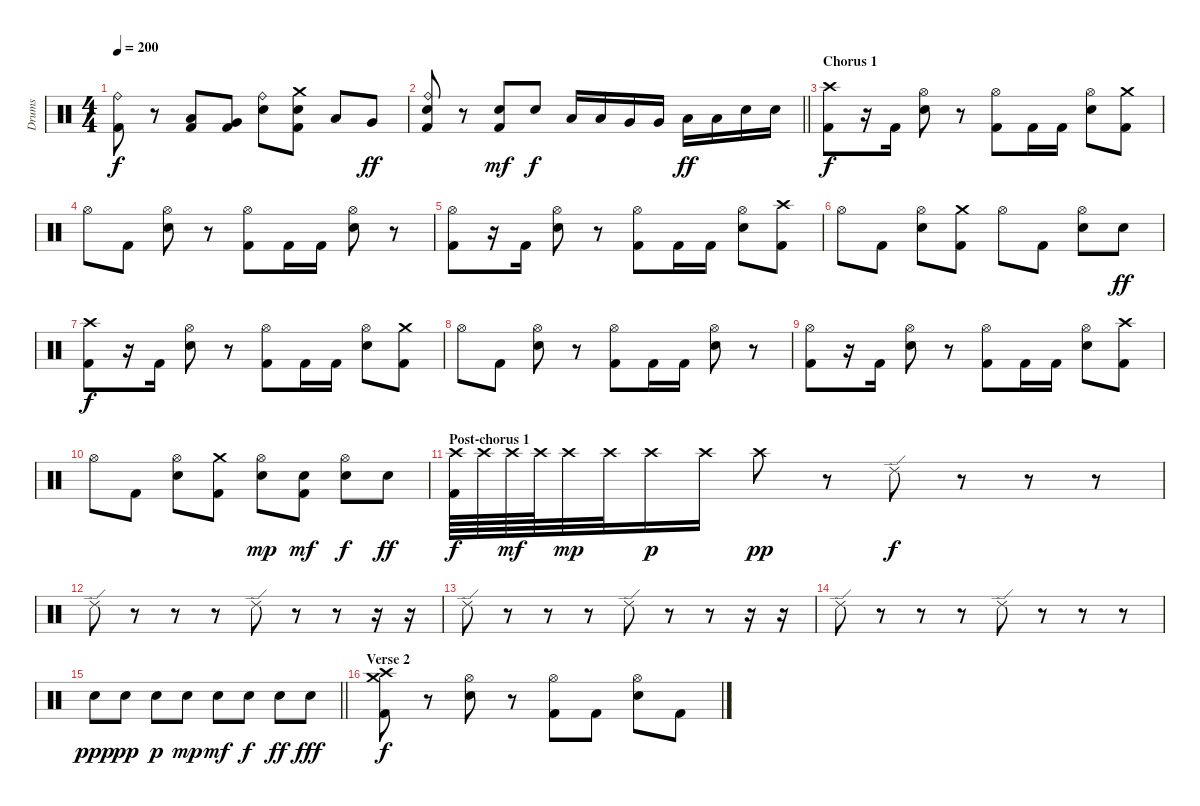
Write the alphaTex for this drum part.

\track ("Drums" "Drums") {instrument percussion}
\staff {score}
\articulation defaults
\ts (4 4)
\tempo 200
\clef neutral
\ks c
("Kick (hit) 2" "Ride (bell)").8{dy f} r.8 ("Kick (hit) 2" "Low Tom (hit)").8 ("Kick (hit) 2" "Very Low Tom (hit)").8 ("Electric Snare (hit)" "Ride (bell)").8 ("Kick (hit) 2" "Electric Snare (hit)" "Crash medium (hit)").8 "Low Tom (hit)".8 "Very Low Tom (hit)".8{dy ff} |
\barLineRight lightlight
("Kick (hit) 2" "Electric Snare (hit)" "Ride (bell)").8 r.8 ("Kick (hit) 2" "Electric Snare (hit)").8{dy mf} "Electric Snare (hit)".8{dy f} "Low Tom (hit)".16 "Low Tom (hit)".16 "Very Low Tom (hit)".16 "Very Low Tom (hit)".16 "Low Tom (hit)".16{dy ff} "Low Tom (hit)".16 "Electric Snare (hit)".16 "Electric Snare (hit)".16 |
\section ("" "Chorus 1")
("Kick (hit) 2" "Crash high (hit)").8{dy f} r.16 "Kick (hit) 2".16 ("Electric Snare (hit)" "Hi-Hat (open)").8 r.8 ("Kick (hit) 2" "Hi-Hat (open)").8 "Kick (hit) 2".16 "Kick (hit) 2".16 ("Electric Snare (hit)" "Hi-Hat (open)").8 ("Kick (hit) 2" "Crash medium (hit)").8 |
"Hi-Hat (open)".8 "Kick (hit) 2".8 ("Electric Snare (hit)" "Hi-Hat (open)").8 r.8 ("Kick (hit) 2" "Hi-Hat (open)").8 "Kick (hit) 2".16 "Kick (hit) 2".16 ("Electric Snare (hit)" "Hi-Hat (open)").8 r.8 |
("Kick (hit) 2" "Hi-Hat (open)").8 r.16 "Kick (hit) 2".16 ("Electric Snare (hit)" "Hi-Hat (open)").8 r.8 ("Kick (hit) 2" "Hi-Hat (open)").8 "Kick (hit) 2".16 "Kick (hit) 2".16 ("Electric Snare (hit)" "Hi-Hat (open)").8 ("Kick (hit) 2" "Crash high (hit)").8 |
"Hi-Hat (open)".8 "Kick (hit) 2".8 ("Electric Snare (hit)" "Hi-Hat (open)").8 ("Kick (hit) 2" "Crash medium (hit)").8 "Hi-Hat (open)".8 "Kick (hit) 2".8 ("Electric Snare (hit)" "Hi-Hat (open)").8 "Electric Snare (hit)".8{dy ff} |
("Kick (hit) 2" "Crash high (hit)").8{dy f} r.16 "Kick (hit) 2".16 ("Electric Snare (hit)" "Hi-Hat (open)").8 r.8 ("Kick (hit) 2" "Hi-Hat (open)").8 "Kick (hit) 2".16 "Kick (hit) 2".16 ("Electric Snare (hit)" "Hi-Hat (open)").8 ("Kick (hit) 2" "Crash medium (hit)").8 |
"Hi-Hat (open)".8 "Kick (hit) 2".8 ("Electric Snare (hit)" "Hi-Hat (open)").8 r.8 ("Kick (hit) 2" "Hi-Hat (open)").8 "Kick (hit) 2".16 "Kick (hit) 2".16 ("Electric Snare (hit)" "Hi-Hat (open)").8 r.8 |
("Kick (hit) 2" "Hi-Hat (open)").8 r.16 "Kick (hit) 2".16 ("Electric Snare (hit)" "Hi-Hat (open)").8 r.8 ("Kick (hit) 2" "Hi-Hat (open)").8 "Kick (hit) 2".16 "Kick (hit) 2".16 ("Electric Snare (hit)" "Hi-Hat (open)").8 ("Kick (hit) 2" "Crash high (hit)").8 |
"Hi-Hat (open)".8 "Kick (hit) 2".8 ("Electric Snare (hit)" "Hi-Hat (open)").8 ("Kick (hit) 2" "Crash medium (hit)").8 ("Electric Snare (hit)" "Hi-Hat (open)").8{dy mp} ("Kick (hit) 2" "Electric Snare (hit)").8{dy mf} ("Electric Snare (hit)" "Hi-Hat (open)").8{dy f} "Electric Snare (hit)".8{dy ff} |
\section ("" "Post-chorus 1")
("Kick (hit) 2" "Crash high (hit)").64{dy f} "Crash high (hit)".64 "Crash high (hit)".64{dy mf} "Crash high (hit)".64 "Crash high (hit)".32{dy mp} "Crash high (hit)".32 "Crash high (hit)".16{dy p} "Crash high (hit)".16 "Crash high (hit)".8{dy pp} r.8 "Ride (edge) 2".8{dy f} r.8 r.8 r.8 |
"Ride (edge) 2".8 r.8 r.8 r.8 "Ride (edge) 2".8 r.8 r.8 r.16 r.16 |
"Ride (edge) 2".8 r.8 r.8 r.8 "Ride (edge) 2".8 r.8 r.8 r.16 r.16 |
"Ride (edge) 2".8 r.8 r.8 r.8 "Ride (edge) 2".8 r.8 r.8 r.8 |
\barLineRight lightlight "Electric Snare (hit)".8{dy ppp} "Electric Snare (hit)".8{dy pp} "Electric Snare (hit)".8{dy p} "Electric Snare (hit)".8{dy mp} "Electric Snare (hit)".8{dy mf} "Electric Snare (hit)".8{dy f} "Electric Snare (hit)".8{dy ff} "Electric Snare (hit)".8{dy fff}
|
\section ("" "Verse 2")
("Kick (hit) 2" "Crash high (hit)" "Crash medium (hit)").8{dy f} r.8 ("Electric Snare (hit)" "Hi-Hat (open)").8 r.8 ("Kick (hit) 2" "Hi-Hat (open)").8 "Kick (hit) 2".8 ("Electric Snare (hit)" "Hi-Hat (open)").8 "Kick (hit) 2".8
